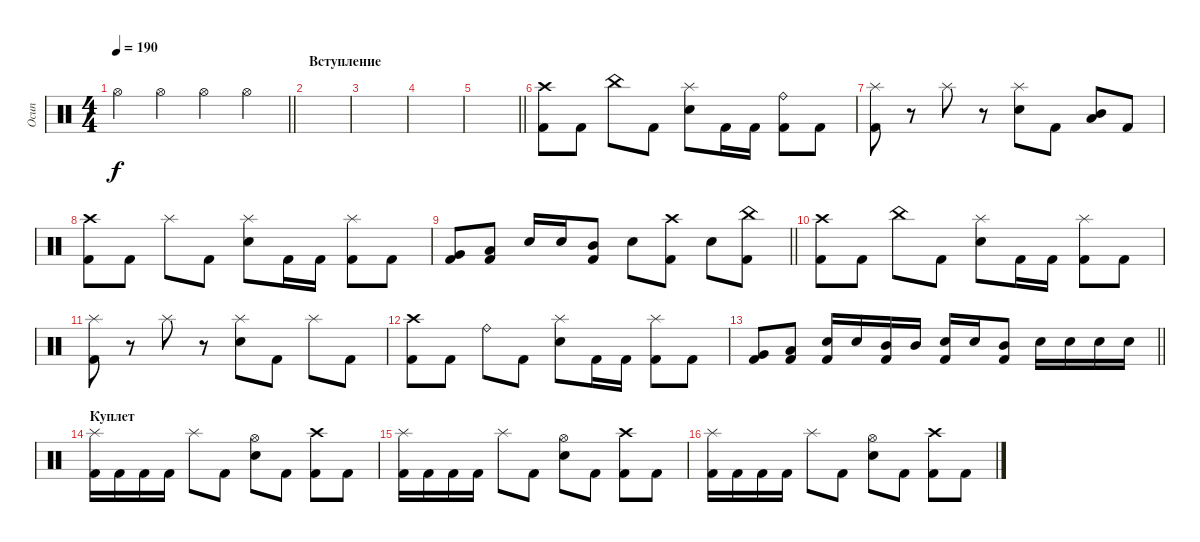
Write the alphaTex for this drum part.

\track ("Осип" "Осип") {instrument percussion}
\staff {score}
\articulation defaults
\ts (4 4)
\tempo 190
\clef neutral
\barLineRight lightlight
\ks c "Hi-Hat (open)".4{dy f} "Hi-Hat (open)".4 "Hi-Hat (open)".4 "Hi-Hat (open)".4
|
\section ("" "Вступление")
|
|
|
\barLineRight lightlight
|
("Kick (hit) 2" "Crash high (hit)").8 "Kick (hit) 2".8 "China (hit)".8 "Kick (hit) 2".8 ("Electric Snare (hit)" "Splash (hit)").8 "Kick (hit) 2".16 "Kick (hit) 2".16 ("Kick (hit) 2" "Ride (bell)").8 "Kick (hit) 2".8 |
("Kick (hit) 2" "Splash (hit)").8 r.8 "Splash (hit)".8 r.8 ("Electric Snare (hit)" "Splash (hit)").8 "Kick (hit) 2".8 ("Low Tom (hit)" "Mid Tom (hit)").8 "Kick (hit) 2".8 |
("Kick (hit) 2" "Crash high (hit)").8 "Kick (hit) 2".8 "Splash (hit)".8 "Kick (hit) 2".8 ("Electric Snare (hit)" "Splash (hit)").8 "Kick (hit) 2".16 "Kick (hit) 2".16 ("Kick (hit) 2" "Splash (hit)").8 "Kick (hit) 2".8 |
\barLineRight lightlight
("Very Low Tom (hit)" "Kick (hit) 2").8 ("Low Tom (hit)" "Kick (hit) 2").8 "Electric Snare (hit)".16 "Electric Snare (hit)".16 ("Mid Tom (hit)" "Kick (hit) 2").8 "Electric Snare (hit)".8 ("Crash high (hit)" "Kick (hit) 2").8 "Electric Snare (hit)".8 ("China (hit)" "Kick (hit) 2").8 |
("Kick (hit) 2" "Crash high (hit)").8 "Kick (hit) 2".8 "China (hit)".8 "Kick (hit) 2".8 ("Electric Snare (hit)" "Splash (hit)").8 "Kick (hit) 2".16 "Kick (hit) 2".16 ("Kick (hit) 2" "Splash (hit)").8 "Kick (hit) 2".8 |
("Kick (hit) 2" "Splash (hit)").8 r.8 "Splash (hit)".8 r.8 ("Electric Snare (hit)" "Splash (hit)").8 "Kick (hit) 2".8 "Splash (hit)".8 "Kick (hit) 2".8 |
("Kick (hit) 2" "Crash high (hit)").8 "Kick (hit) 2".8 "Ride (bell)".8 "Kick (hit) 2".8 ("Electric Snare (hit)" "Splash (hit)").8 "Kick (hit) 2".16 "Kick (hit) 2".16 ("Kick (hit) 2" "Splash (hit)").8 "Kick (hit) 2".8 |
\barLineRight lightlight
("Very Low Tom (hit)" "Kick (hit) 2").8 ("Low Tom (hit)" "Kick (hit) 2").8 ("Electric Snare (hit)" "Kick (hit) 2").16 "Electric Snare (hit)".16 ("Mid Tom (hit)" "Kick (hit) 2").16 "Mid Tom (hit)".16 ("Electric Snare (hit)" "Kick (hit) 2").16 "Electric Snare (hit)".16 ("Mid Tom (hit)" "Kick (hit) 2").8 "Electric Snare (hit)".16 "Electric Snare (hit)".16 "Electric Snare (hit)".16 "Electric Snare (hit)".16 |
\section ("" "Куплет")
("Splash (hit)" "Kick (hit) 2").16 "Kick (hit) 2".16 "Kick (hit) 2".16 "Kick (hit) 2".16 "Splash (hit)".8 "Kick (hit) 2".8 ("Electric Snare (hit)" "Hi-Hat (open)").8 "Kick (hit) 2".8 ("Crash high (hit)" "Kick (hit) 2").8 "Kick (hit) 2".8 |
("Splash (hit)" "Kick (hit) 2").16 "Kick (hit) 2".16 "Kick (hit) 2".16 "Kick (hit) 2".16 "Splash (hit)".8 "Kick (hit) 2".8 ("Electric Snare (hit)" "Hi-Hat (open)").8 "Kick (hit) 2".8 ("Crash high (hit)" "Kick (hit) 2").8 "Kick (hit) 2".8 |
("Splash (hit)" "Kick (hit) 2").16 "Kick (hit) 2".16 "Kick (hit) 2".16 "Kick (hit) 2".16 "Splash (hit)".8 "Kick (hit) 2".8 ("Electric Snare (hit)" "Hi-Hat (open)").8 "Kick (hit) 2".8 ("Crash high (hit)" "Kick (hit) 2").8 "Kick (hit) 2".8
